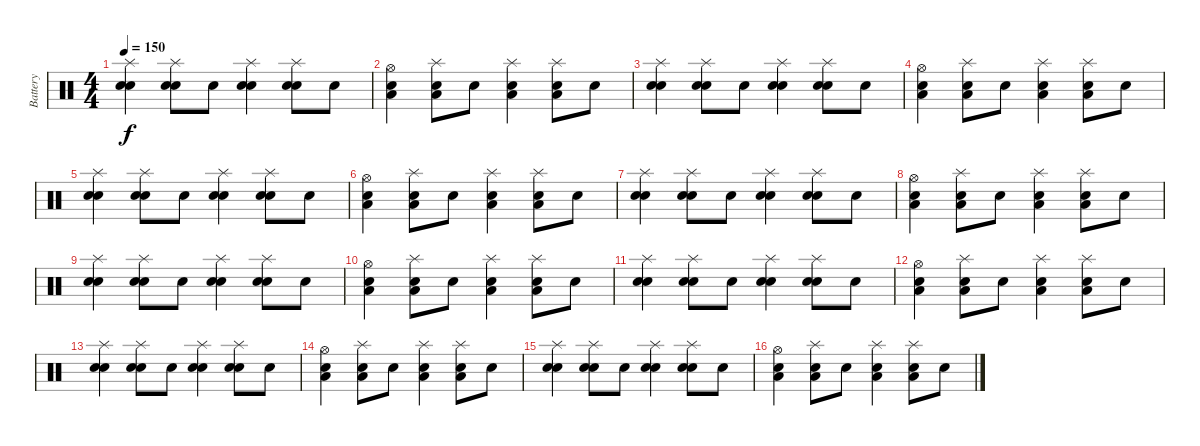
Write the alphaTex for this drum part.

\track ("Battery" "Battery") {instrument percussion}
\staff {score}
\articulation defaults
\ts (4 4)
\tempo 150
\clef neutral
\ks c
("Snare (hit) 2" "Electric Snare (hit)" "Splash (hit)").4{dy f} ("Snare (hit) 2" "Electric Snare (hit)" "Splash (hit)").8 "Snare (hit) 2".8 ("Snare (hit) 2" "Electric Snare (hit)" "Splash (hit)").4 ("Snare (hit) 2" "Electric Snare (hit)" "Splash (hit)").8 "Snare (hit) 2".8 |
("Snare (hit) 2" "Low Floor Tom (hit)" "Hi-Hat (open)").4 ("Snare (hit) 2" "Low Floor Tom (hit)" "Splash (hit)").8 "Snare (hit) 2".8 ("Snare (hit) 2" "Low Floor Tom (hit)" "Splash (hit)").4 ("Snare (hit) 2" "Low Floor Tom (hit)" "Splash (hit)").8 "Snare (hit) 2".8 |
("Snare (hit) 2" "Electric Snare (hit)" "Splash (hit)").4 ("Snare (hit) 2" "Electric Snare (hit)" "Splash (hit)").8 "Snare (hit) 2".8 ("Snare (hit) 2" "Electric Snare (hit)" "Splash (hit)").4 ("Snare (hit) 2" "Electric Snare (hit)" "Splash (hit)").8 "Snare (hit) 2".8 |
("Snare (hit) 2" "Low Floor Tom (hit)" "Hi-Hat (open)").4 ("Snare (hit) 2" "Low Floor Tom (hit)" "Splash (hit)").8 "Snare (hit) 2".8 ("Snare (hit) 2" "Low Floor Tom (hit)" "Splash (hit)").4 ("Snare (hit) 2" "Low Floor Tom (hit)" "Splash (hit)").8 "Snare (hit) 2".8 |
("Snare (hit) 2" "Electric Snare (hit)" "Splash (hit)").4 ("Snare (hit) 2" "Electric Snare (hit)" "Splash (hit)").8 "Snare (hit) 2".8 ("Snare (hit) 2" "Electric Snare (hit)" "Splash (hit)").4 ("Snare (hit) 2" "Electric Snare (hit)" "Splash (hit)").8 "Snare (hit) 2".8 |
("Snare (hit) 2" "Low Floor Tom (hit)" "Hi-Hat (open)").4 ("Snare (hit) 2" "Low Floor Tom (hit)" "Splash (hit)").8 "Snare (hit) 2".8 ("Snare (hit) 2" "Low Floor Tom (hit)" "Splash (hit)").4 ("Snare (hit) 2" "Low Floor Tom (hit)" "Splash (hit)").8 "Snare (hit) 2".8 |
("Snare (hit) 2" "Electric Snare (hit)" "Splash (hit)").4 ("Snare (hit) 2" "Electric Snare (hit)" "Splash (hit)").8 "Snare (hit) 2".8 ("Snare (hit) 2" "Electric Snare (hit)" "Splash (hit)").4 ("Snare (hit) 2" "Electric Snare (hit)" "Splash (hit)").8 "Snare (hit) 2".8 |
("Snare (hit) 2" "Low Floor Tom (hit)" "Hi-Hat (open)").4 ("Snare (hit) 2" "Low Floor Tom (hit)" "Splash (hit)").8 "Snare (hit) 2".8 ("Snare (hit) 2" "Low Floor Tom (hit)" "Splash (hit)").4 ("Snare (hit) 2" "Low Floor Tom (hit)" "Splash (hit)").8 "Snare (hit) 2".8 |
("Snare (hit) 2" "Electric Snare (hit)" "Splash (hit)").4 ("Snare (hit) 2" "Electric Snare (hit)" "Splash (hit)").8 "Snare (hit) 2".8 ("Snare (hit) 2" "Electric Snare (hit)" "Splash (hit)").4 ("Snare (hit) 2" "Electric Snare (hit)" "Splash (hit)").8 "Snare (hit) 2".8 |
("Snare (hit) 2" "Low Floor Tom (hit)" "Hi-Hat (open)").4 ("Snare (hit) 2" "Low Floor Tom (hit)" "Splash (hit)").8 "Snare (hit) 2".8 ("Snare (hit) 2" "Low Floor Tom (hit)" "Splash (hit)").4 ("Snare (hit) 2" "Low Floor Tom (hit)" "Splash (hit)").8 "Snare (hit) 2".8 |
("Snare (hit) 2" "Electric Snare (hit)" "Splash (hit)").4 ("Snare (hit) 2" "Electric Snare (hit)" "Splash (hit)").8 "Snare (hit) 2".8 ("Snare (hit) 2" "Electric Snare (hit)" "Splash (hit)").4 ("Snare (hit) 2" "Electric Snare (hit)" "Splash (hit)").8 "Snare (hit) 2".8 |
("Snare (hit) 2" "Low Floor Tom (hit)" "Hi-Hat (open)").4 ("Snare (hit) 2" "Low Floor Tom (hit)" "Splash (hit)").8 "Snare (hit) 2".8 ("Snare (hit) 2" "Low Floor Tom (hit)" "Splash (hit)").4 ("Snare (hit) 2" "Low Floor Tom (hit)" "Splash (hit)").8 "Snare (hit) 2".8 |
("Snare (hit) 2" "Electric Snare (hit)" "Splash (hit)").4 ("Snare (hit) 2" "Electric Snare (hit)" "Splash (hit)").8 "Snare (hit) 2".8 ("Snare (hit) 2" "Electric Snare (hit)" "Splash (hit)").4 ("Snare (hit) 2" "Electric Snare (hit)" "Splash (hit)").8 "Snare (hit) 2".8 |
("Snare (hit) 2" "Low Floor Tom (hit)" "Hi-Hat (open)").4 ("Snare (hit) 2" "Low Floor Tom (hit)" "Splash (hit)").8 "Snare (hit) 2".8 ("Snare (hit) 2" "Low Floor Tom (hit)" "Splash (hit)").4 ("Snare (hit) 2" "Low Floor Tom (hit)" "Splash (hit)").8 "Snare (hit) 2".8 |
("Snare (hit) 2" "Electric Snare (hit)" "Splash (hit)").4 ("Snare (hit) 2" "Electric Snare (hit)" "Splash (hit)").8 "Snare (hit) 2".8 ("Snare (hit) 2" "Electric Snare (hit)" "Splash (hit)").4 ("Snare (hit) 2" "Electric Snare (hit)" "Splash (hit)").8 "Snare (hit) 2".8 |
("Snare (hit) 2" "Low Floor Tom (hit)" "Hi-Hat (open)").4 ("Snare (hit) 2" "Low Floor Tom (hit)" "Splash (hit)").8 "Snare (hit) 2".8 ("Snare (hit) 2" "Low Floor Tom (hit)" "Splash (hit)").4 ("Snare (hit) 2" "Low Floor Tom (hit)" "Splash (hit)").8 "Snare (hit) 2".8
